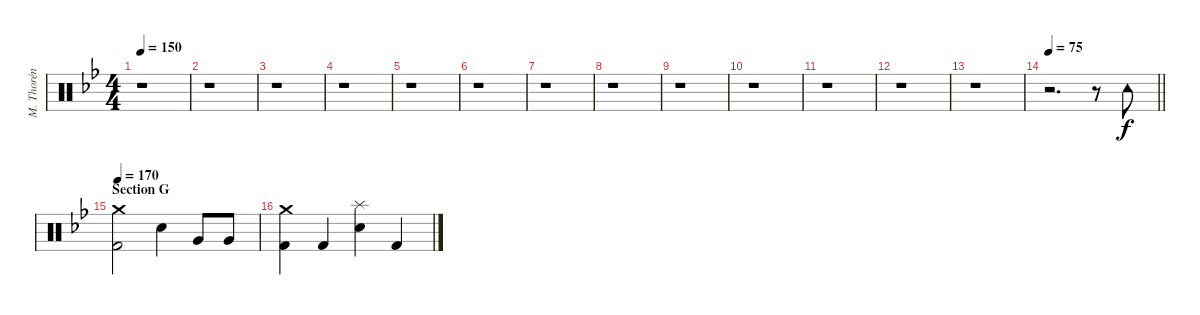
\track ("M. Thorén (Drums)" "M. Thorén ") {instrument percussion}
\staff {score}
\articulation defaults
\ts (4 4)
\tempo 150
\clef neutral
\ks gminor
r.1{dy f} |
r.1 |
r.1 |
r.1 |
r.1 |
r.1 |
r.1 |
r.1 |
r.1 |
r.1 |
r.1 |
r.1 |
r.1 |
\tempo 75
\barLineRight lightlight
r.2{d} r.8 "Tambourine (hit)".8 |
\section ("" "Section G")
\tempo 170
("Crash medium (hit)" "Kick (hit) 2").2 "Electric Snare (hit)".4 "Very Low Tom (hit)".8 "Very Low Tom (hit)".8 |
("Crash medium (hit)" "Kick (hit) 2").4 "Kick (hit) 2".4 ("Splash (hit)" "Electric Snare (hit)").4 "Kick (hit) 2".4
